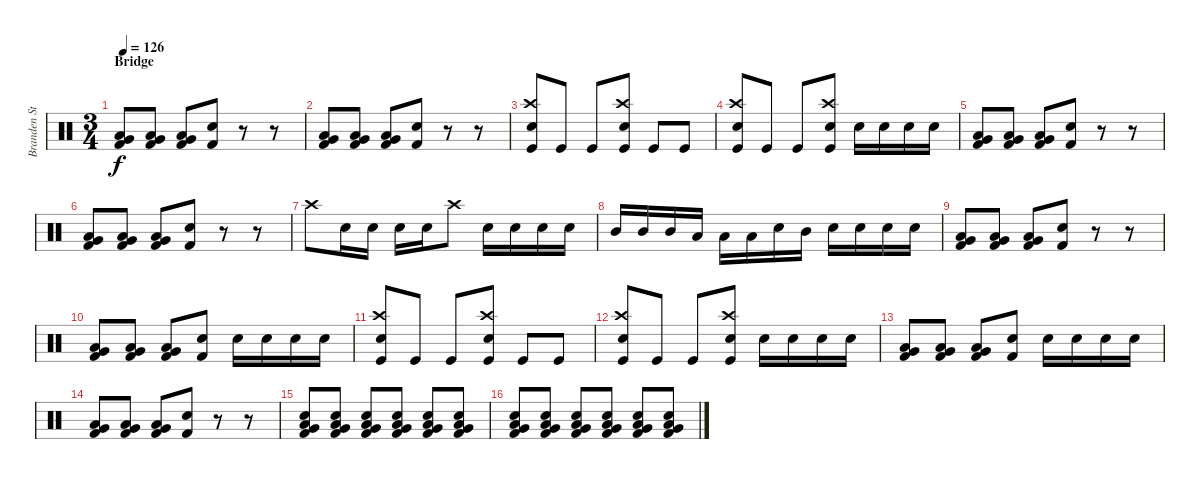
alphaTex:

\track ("Branden Steineckert [Drums]" "Branden St") {instrument percussion}
\staff {score}
\articulation defaults
\ts (3 4)
\section ("" "Bridge")
\tempo 126
\clef neutral
\ks c
("Very Low Tom (hit)" "Low Floor Tom (hit)" "Kick (hit) 2").8{dy f} ("Very Low Tom (hit)" "Low Floor Tom (hit)" "Kick (hit) 2").8 ("Very Low Tom (hit)" "Low Floor Tom (hit)" "Kick (hit) 2").8 ("Electric Snare (hit)" "Kick (hit) 2").8 r.8 r.8 |
("Very Low Tom (hit)" "Low Floor Tom (hit)" "Kick (hit) 2").8 ("Very Low Tom (hit)" "Low Floor Tom (hit)" "Kick (hit) 2").8 ("Very Low Tom (hit)" "Low Floor Tom (hit)" "Kick (hit) 2").8 ("Electric Snare (hit)" "Kick (hit) 2").8 r.8 r.8 |
("Crash high (hit)" "Electric Snare (hit)" "Kick (hit)").8 "Kick (hit)".8 "Kick (hit)".8 ("Crash high (hit)" "Electric Snare (hit)" "Kick (hit)").8 "Kick (hit)".8 "Kick (hit)".8 |
("Crash high (hit)" "Electric Snare (hit)" "Kick (hit)").8 "Kick (hit)".8 "Kick (hit)".8 ("Crash high (hit)" "Electric Snare (hit)" "Kick (hit)").8 "Electric Snare (hit)".16 "Electric Snare (hit)".16 "Electric Snare (hit)".16 "Electric Snare (hit)".16 |
("Very Low Tom (hit)" "Low Floor Tom (hit)" "Kick (hit) 2").8 ("Very Low Tom (hit)" "Low Floor Tom (hit)" "Kick (hit) 2").8 ("Very Low Tom (hit)" "Low Floor Tom (hit)" "Kick (hit) 2").8 ("Electric Snare (hit)" "Kick (hit) 2").8 r.8 r.8 |
("Very Low Tom (hit)" "Low Floor Tom (hit)" "Kick (hit) 2").8 ("Very Low Tom (hit)" "Low Floor Tom (hit)" "Kick (hit) 2").8 ("Very Low Tom (hit)" "Low Floor Tom (hit)" "Kick (hit) 2").8 ("Electric Snare (hit)" "Kick (hit) 2").8 r.8 r.8 |
"Crash high (hit)".8 "Electric Snare (hit)".16 "Electric Snare (hit)".16 "Electric Snare (hit)".16 "Electric Snare (hit)".16 "Crash high (hit)".8 "Electric Snare (hit)".16 "Electric Snare (hit)".16 "Electric Snare (hit)".16 "Electric Snare (hit)".16 |
"Mid Tom (hit)".16 "Mid Tom (hit)".16 "Mid Tom (hit)".16 "Low Tom (hit)".16 "Low Tom (hit)".16 "Low Tom (hit)".16 "Electric Snare (hit)".16 "Mid Tom (hit)".16 "Electric Snare (hit)".16 "Electric Snare (hit)".16 "Electric Snare (hit)".16 "Electric Snare (hit)".16 |
("Very Low Tom (hit)" "Low Floor Tom (hit)" "Kick (hit) 2").8 ("Very Low Tom (hit)" "Low Floor Tom (hit)" "Kick (hit) 2").8 ("Very Low Tom (hit)" "Low Floor Tom (hit)" "Kick (hit) 2").8 ("Electric Snare (hit)" "Kick (hit) 2").8 r.8 r.8 |
("Very Low Tom (hit)" "Low Floor Tom (hit)" "Kick (hit) 2").8 ("Very Low Tom (hit)" "Low Floor Tom (hit)" "Kick (hit) 2").8 ("Very Low Tom (hit)" "Low Floor Tom (hit)" "Kick (hit) 2").8 ("Electric Snare (hit)" "Kick (hit) 2").8 "Electric Snare (hit)".16 "Electric Snare (hit)".16 "Electric Snare (hit)".16 "Electric Snare (hit)".16 |
("Crash high (hit)" "Electric Snare (hit)" "Kick (hit)").8 "Kick (hit)".8 "Kick (hit)".8 ("Crash high (hit)" "Electric Snare (hit)" "Kick (hit)").8 "Kick (hit)".8 "Kick (hit)".8 |
("Crash high (hit)" "Electric Snare (hit)" "Kick (hit)").8 "Kick (hit)".8 "Kick (hit)".8 ("Crash high (hit)" "Electric Snare (hit)" "Kick (hit)").8 "Electric Snare (hit)".16 "Electric Snare (hit)".16 "Electric Snare (hit)".16 "Electric Snare (hit)".16 |
("Very Low Tom (hit)" "Low Floor Tom (hit)" "Kick (hit) 2").8 ("Very Low Tom (hit)" "Low Floor Tom (hit)" "Kick (hit) 2").8 ("Very Low Tom (hit)" "Low Floor Tom (hit)" "Kick (hit) 2").8 ("Electric Snare (hit)" "Kick (hit) 2").8 "Electric Snare (hit)".16 "Electric Snare (hit)".16 "Electric Snare (hit)".16 "Electric Snare (hit)".16 |
("Very Low Tom (hit)" "Low Floor Tom (hit)" "Kick (hit) 2").8 ("Very Low Tom (hit)" "Low Floor Tom (hit)" "Kick (hit) 2").8 ("Very Low Tom (hit)" "Low Floor Tom (hit)" "Kick (hit) 2").8 ("Electric Snare (hit)" "Kick (hit) 2").8 r.8 r.8 |
("Electric Snare (hit)" "Very Low Tom (hit)" "Low Floor Tom (hit)" "Kick (hit) 2").8 ("Electric Snare (hit)" "Very Low Tom (hit)" "Low Floor Tom (hit)" "Kick (hit) 2").8 ("Electric Snare (hit)" "Very Low Tom (hit)" "Low Floor Tom (hit)" "Kick (hit) 2").8 ("Electric Snare (hit)" "Very Low Tom (hit)" "Low Floor Tom (hit)" "Kick (hit) 2").8 ("Electric Snare (hit)" "Very Low Tom (hit)" "Low Floor Tom (hit)" "Kick (hit) 2").8 ("Electric Snare (hit)" "Very Low Tom (hit)" "Low Floor Tom (hit)" "Kick (hit) 2").8 |
("Electric Snare (hit)" "Very Low Tom (hit)" "Low Floor Tom (hit)" "Kick (hit) 2").8 ("Electric Snare (hit)" "Very Low Tom (hit)" "Low Floor Tom (hit)" "Kick (hit) 2").8 ("Electric Snare (hit)" "Very Low Tom (hit)" "Low Floor Tom (hit)" "Kick (hit) 2").8 ("Electric Snare (hit)" "Very Low Tom (hit)" "Low Floor Tom (hit)" "Kick (hit) 2").8 ("Electric Snare (hit)" "Very Low Tom (hit)" "Low Floor Tom (hit)" "Kick (hit) 2").8 ("Electric Snare (hit)" "Very Low Tom (hit)" "Low Floor Tom (hit)" "Kick (hit) 2").8
